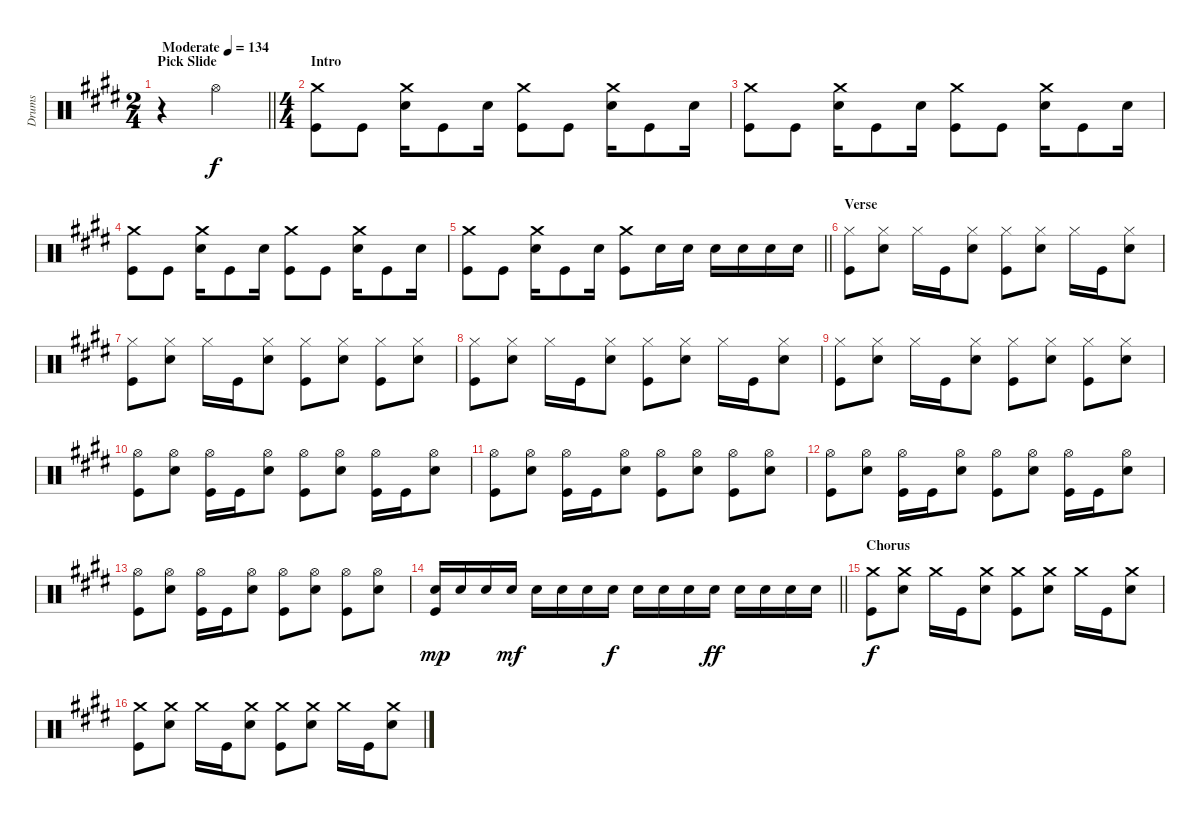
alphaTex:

\track ("Drums" "Drums") {instrument percussion}
\staff {score}
\articulation defaults
\ts (2 4)
\section ("" "Pick Slide")
\tempo (134 "Moderate")
\clef neutral
\barLineRight lightlight
\ks e
r.4{dy f} "Hi-Hat (open)".4 |
\ts (4 4)
\section ("" "Intro")
("Crash medium (hit)" "Kick (hit)").8 "Kick (hit)".8 ("Crash medium (hit)" "Snare (hit) 2").16 "Kick (hit)".8 "Snare (hit) 2".16 ("Crash medium (hit)" "Kick (hit)").8 "Kick (hit)".8 ("Crash medium (hit)" "Snare (hit) 2").16 "Kick (hit)".8 "Snare (hit) 2".16 |
("Crash medium (hit)" "Kick (hit)").8 "Kick (hit)".8 ("Crash medium (hit)" "Snare (hit) 2").16 "Kick (hit)".8 "Snare (hit) 2".16 ("Crash medium (hit)" "Kick (hit)").8 "Kick (hit)".8 ("Crash medium (hit)" "Snare (hit) 2").16 "Kick (hit)".8 "Snare (hit) 2".16 |
("Crash medium (hit)" "Kick (hit)").8 "Kick (hit)".8 ("Crash medium (hit)" "Snare (hit) 2").16 "Kick (hit)".8 "Snare (hit) 2".16 ("Crash medium (hit)" "Kick (hit)").8 "Kick (hit)".8 ("Crash medium (hit)" "Snare (hit) 2").16 "Kick (hit)".8 "Snare (hit) 2".16 |
\barLineRight lightlight
("Crash medium (hit)" "Kick (hit)").8 "Kick (hit)".8 ("Crash medium (hit)" "Snare (hit) 2").16 "Kick (hit)".8 "Snare (hit) 2".16 ("Crash medium (hit)" "Kick (hit)").8 "Snare (hit) 2".16 "Snare (hit) 2".16 "Snare (hit) 2".16 "Snare (hit) 2".16 "Snare (hit) 2".16 "Snare (hit) 2".16 |
\section ("" "Verse")
("Hi-Hat (closed)" "Kick (hit)").8 ("Hi-Hat (closed)" "Snare (hit) 2").8 "Hi-Hat (closed)".16 "Kick (hit)".16 ("Hi-Hat (closed)" "Snare (hit) 2").8 ("Hi-Hat (closed)" "Kick (hit)").8 ("Hi-Hat (closed)" "Snare (hit) 2").8 "Hi-Hat (closed)".16 "Kick (hit)".16 ("Hi-Hat (closed)" "Snare (hit) 2").8 |
("Hi-Hat (closed)" "Kick (hit)").8 ("Hi-Hat (closed)" "Snare (hit) 2").8 "Hi-Hat (closed)".16 "Kick (hit)".16 ("Hi-Hat (closed)" "Snare (hit) 2").8 ("Hi-Hat (closed)" "Kick (hit)").8 ("Hi-Hat (closed)" "Snare (hit) 2").8 ("Hi-Hat (closed)" "Kick (hit)").8 ("Hi-Hat (closed)" "Snare (hit) 2").8 |
("Hi-Hat (closed)" "Kick (hit)").8 ("Hi-Hat (closed)" "Snare (hit) 2").8 "Hi-Hat (closed)".16 "Kick (hit)".16 ("Hi-Hat (closed)" "Snare (hit) 2").8 ("Hi-Hat (closed)" "Kick (hit)").8 ("Hi-Hat (closed)" "Snare (hit) 2").8 "Hi-Hat (closed)".16 "Kick (hit)".16 ("Hi-Hat (closed)" "Snare (hit) 2").8 |
("Hi-Hat (closed)" "Kick (hit)").8 ("Hi-Hat (closed)" "Snare (hit) 2").8 "Hi-Hat (closed)".16 "Kick (hit)".16 ("Hi-Hat (closed)" "Snare (hit) 2").8 ("Hi-Hat (closed)" "Kick (hit)").8 ("Hi-Hat (closed)" "Snare (hit) 2").8 ("Hi-Hat (closed)" "Kick (hit)").8 ("Hi-Hat (closed)" "Snare (hit) 2").8 |
("Hi-Hat (open)" "Kick (hit)").8 ("Hi-Hat (open)" "Snare (hit) 2").8 ("Hi-Hat (open)" "Kick (hit)").16 "Kick (hit)".16 ("Hi-Hat (open)" "Snare (hit) 2").8 ("Hi-Hat (open)" "Kick (hit)").8 ("Hi-Hat (open)" "Snare (hit) 2").8 ("Hi-Hat (open)" "Kick (hit)").16 "Kick (hit)".16 ("Hi-Hat (open)" "Snare (hit) 2").8 |
("Hi-Hat (open)" "Kick (hit)").8 ("Hi-Hat (open)" "Snare (hit) 2").8 ("Hi-Hat (open)" "Kick (hit)").16 "Kick (hit)".16 ("Hi-Hat (open)" "Snare (hit) 2").8 ("Hi-Hat (open)" "Kick (hit)").8 ("Hi-Hat (open)" "Snare (hit) 2").8 ("Hi-Hat (open)" "Kick (hit)").8 ("Hi-Hat (open)" "Snare (hit) 2").8 |
("Hi-Hat (open)" "Kick (hit)").8 ("Hi-Hat (open)" "Snare (hit) 2").8 ("Hi-Hat (open)" "Kick (hit)").16 "Kick (hit)".16 ("Hi-Hat (open)" "Snare (hit) 2").8 ("Hi-Hat (open)" "Kick (hit)").8 ("Hi-Hat (open)" "Snare (hit) 2").8 ("Hi-Hat (open)" "Kick (hit)").16 "Kick (hit)".16 ("Hi-Hat (open)" "Snare (hit) 2").8 |
("Hi-Hat (open)" "Kick (hit)").8 ("Hi-Hat (open)" "Snare (hit) 2").8 ("Hi-Hat (open)" "Kick (hit)").16 "Kick (hit)".16 ("Hi-Hat (open)" "Snare (hit) 2").8 ("Hi-Hat (open)" "Kick (hit)").8 ("Hi-Hat (open)" "Snare (hit) 2").8 ("Hi-Hat (open)" "Kick (hit)").8 ("Hi-Hat (open)" "Snare (hit) 2").8 |
\barLineRight lightlight
("Snare (hit) 2" "Kick (hit)").16{dy mp} "Snare (hit) 2".16 "Snare (hit) 2".16 "Snare (hit) 2".16{dy mf} "Snare (hit) 2".16 "Snare (hit) 2".16 "Snare (hit) 2".16 "Snare (hit) 2".16{dy f} "Snare (hit) 2".16 "Snare (hit) 2".16 "Snare (hit) 2".16 "Snare (hit) 2".16{dy ff} "Snare (hit) 2".16 "Snare (hit) 2".16 "Snare (hit) 2".16 "Snare (hit) 2".16 |
\section ("" "Chorus")
("Crash medium (hit)" "Kick (hit)").8{dy f} ("Crash medium (hit)" "Snare (hit) 2").8 "Crash medium (hit)".16 "Kick (hit)".16 ("Crash medium (hit)" "Snare (hit) 2").8 ("Crash medium (hit)" "Kick (hit)").8 ("Crash medium (hit)" "Snare (hit) 2").8 "Crash medium (hit)".16 "Kick (hit)".16 ("Crash medium (hit)" "Snare (hit) 2").8 |
("Crash medium (hit)" "Kick (hit)").8 ("Crash medium (hit)" "Snare (hit) 2").8 "Crash medium (hit)".16 "Kick (hit)".16 ("Crash medium (hit)" "Snare (hit) 2").8 ("Crash medium (hit)" "Kick (hit)").8 ("Crash medium (hit)" "Snare (hit) 2").8 "Crash medium (hit)".16 "Kick (hit)".16 ("Crash medium (hit)" "Snare (hit) 2").8
